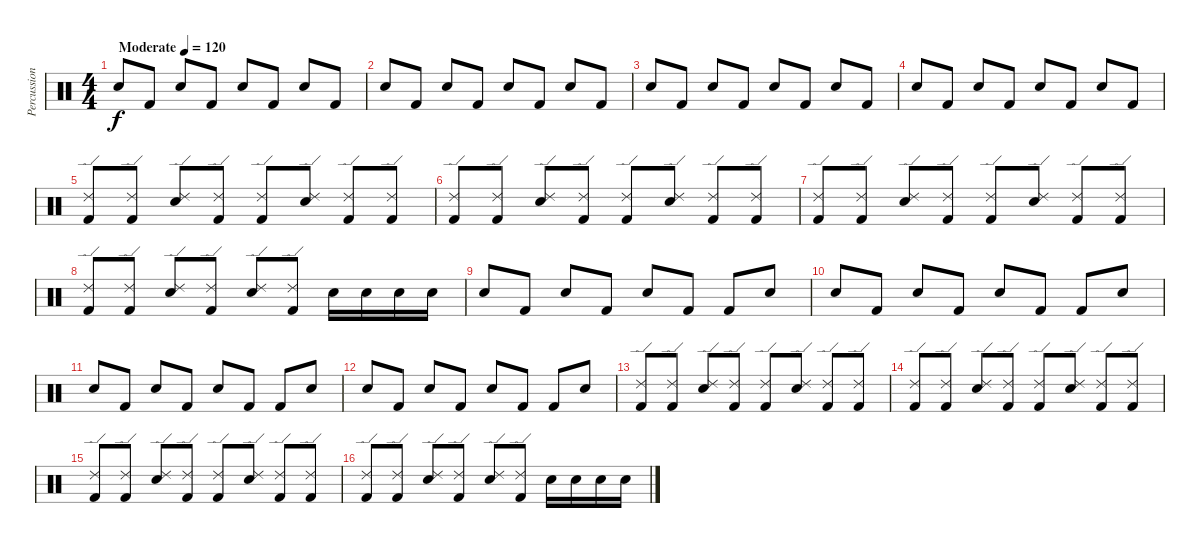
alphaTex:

\track ("Percussion" "Percussion") {instrument percussion}
\staff {score}
\articulation defaults
\ts (4 4)
\tempo (120 "Moderate")
\clef neutral
\ks c "Snare (hit) 2".8{dy f} "Kick (hit) 2".8 "Snare (hit) 2".8 "Kick (hit) 2".8 "Snare (hit) 2".8 "Kick (hit) 2".8 "Snare (hit) 2".8 "Kick (hit) 2".8
|
"Snare (hit) 2".8 "Kick (hit) 2".8 "Snare (hit) 2".8 "Kick (hit) 2".8 "Snare (hit) 2".8 "Kick (hit) 2".8 "Snare (hit) 2".8 "Kick (hit) 2".8 |
"Snare (hit) 2".8 "Kick (hit) 2".8 "Snare (hit) 2".8 "Kick (hit) 2".8 "Snare (hit) 2".8 "Kick (hit) 2".8 "Snare (hit) 2".8 "Kick (hit) 2".8 |
"Snare (hit) 2".8 "Kick (hit) 2".8 "Snare (hit) 2".8 "Kick (hit) 2".8 "Snare (hit) 2".8 "Kick (hit) 2".8 "Snare (hit) 2".8 "Kick (hit) 2".8 |
("Kick (hit) 2" "Ride (edge) 2").8 ("Kick (hit) 2" "Ride (edge) 2").8 ("Snare (hit) 2" "Ride (edge) 2").8 ("Kick (hit) 2" "Ride (edge) 2").8 ("Kick (hit) 2" "Ride (edge) 2").8 ("Snare (hit) 2" "Ride (edge) 2").8 ("Kick (hit) 2" "Ride (edge) 2").8 ("Kick (hit) 2" "Ride (edge) 2").8 |
("Kick (hit) 2" "Ride (edge) 2").8 ("Kick (hit) 2" "Ride (edge) 2").8 ("Snare (hit) 2" "Ride (edge) 2").8 ("Kick (hit) 2" "Ride (edge) 2").8 ("Kick (hit) 2" "Ride (edge) 2").8 ("Snare (hit) 2" "Ride (edge) 2").8 ("Kick (hit) 2" "Ride (edge) 2").8 ("Kick (hit) 2" "Ride (edge) 2").8 |
("Kick (hit) 2" "Ride (edge) 2").8 ("Kick (hit) 2" "Ride (edge) 2").8 ("Snare (hit) 2" "Ride (edge) 2").8 ("Kick (hit) 2" "Ride (edge) 2").8 ("Kick (hit) 2" "Ride (edge) 2").8 ("Snare (hit) 2" "Ride (edge) 2").8 ("Kick (hit) 2" "Ride (edge) 2").8 ("Kick (hit) 2" "Ride (edge) 2").8 |
("Kick (hit) 2" "Ride (edge) 2").8 ("Kick (hit) 2" "Ride (edge) 2").8 ("Snare (hit) 2" "Ride (edge) 2").8 ("Kick (hit) 2" "Ride (edge) 2").8 ("Snare (hit) 2" "Ride (edge) 2").8 ("Kick (hit) 2" "Ride (edge) 2").8 "Snare (hit) 2".16 "Snare (hit) 2".16 "Snare (hit) 2".16 "Snare (hit) 2".16 |
"Snare (hit) 2".8 "Kick (hit) 2".8 "Snare (hit) 2".8 "Kick (hit) 2".8 "Snare (hit) 2".8 "Kick (hit) 2".8 "Kick (hit) 2".8 "Snare (hit) 2".8 |
"Snare (hit) 2".8 "Kick (hit) 2".8 "Snare (hit) 2".8 "Kick (hit) 2".8 "Snare (hit) 2".8 "Kick (hit) 2".8 "Kick (hit) 2".8 "Snare (hit) 2".8 |
"Snare (hit) 2".8 "Kick (hit) 2".8 "Snare (hit) 2".8 "Kick (hit) 2".8 "Snare (hit) 2".8 "Kick (hit) 2".8 "Kick (hit) 2".8 "Snare (hit) 2".8 |
"Snare (hit) 2".8 "Kick (hit) 2".8 "Snare (hit) 2".8 "Kick (hit) 2".8 "Snare (hit) 2".8 "Kick (hit) 2".8 "Kick (hit) 2".8 "Snare (hit) 2".8 |
("Kick (hit) 2" "Ride (edge) 2").8 ("Kick (hit) 2" "Ride (edge) 2").8 ("Snare (hit) 2" "Ride (edge) 2").8 ("Kick (hit) 2" "Ride (edge) 2").8 ("Kick (hit) 2" "Ride (edge) 2").8 ("Snare (hit) 2" "Ride (edge) 2").8 ("Kick (hit) 2" "Ride (edge) 2").8 ("Kick (hit) 2" "Ride (edge) 2").8 |
("Kick (hit) 2" "Ride (edge) 2").8 ("Kick (hit) 2" "Ride (edge) 2").8 ("Snare (hit) 2" "Ride (edge) 2").8 ("Kick (hit) 2" "Ride (edge) 2").8 ("Kick (hit) 2" "Ride (edge) 2").8 ("Snare (hit) 2" "Ride (edge) 2").8 ("Kick (hit) 2" "Ride (edge) 2").8 ("Kick (hit) 2" "Ride (edge) 2").8 |
("Kick (hit) 2" "Ride (edge) 2").8 ("Kick (hit) 2" "Ride (edge) 2").8 ("Snare (hit) 2" "Ride (edge) 2").8 ("Kick (hit) 2" "Ride (edge) 2").8 ("Kick (hit) 2" "Ride (edge) 2").8 ("Snare (hit) 2" "Ride (edge) 2").8 ("Kick (hit) 2" "Ride (edge) 2").8 ("Kick (hit) 2" "Ride (edge) 2").8 |
("Kick (hit) 2" "Ride (edge) 2").8 ("Kick (hit) 2" "Ride (edge) 2").8 ("Snare (hit) 2" "Ride (edge) 2").8 ("Kick (hit) 2" "Ride (edge) 2").8 ("Snare (hit) 2" "Ride (edge) 2").8 ("Kick (hit) 2" "Ride (edge) 2").8 "Snare (hit) 2".16 "Snare (hit) 2".16 "Snare (hit) 2".16 "Snare (hit) 2".16
